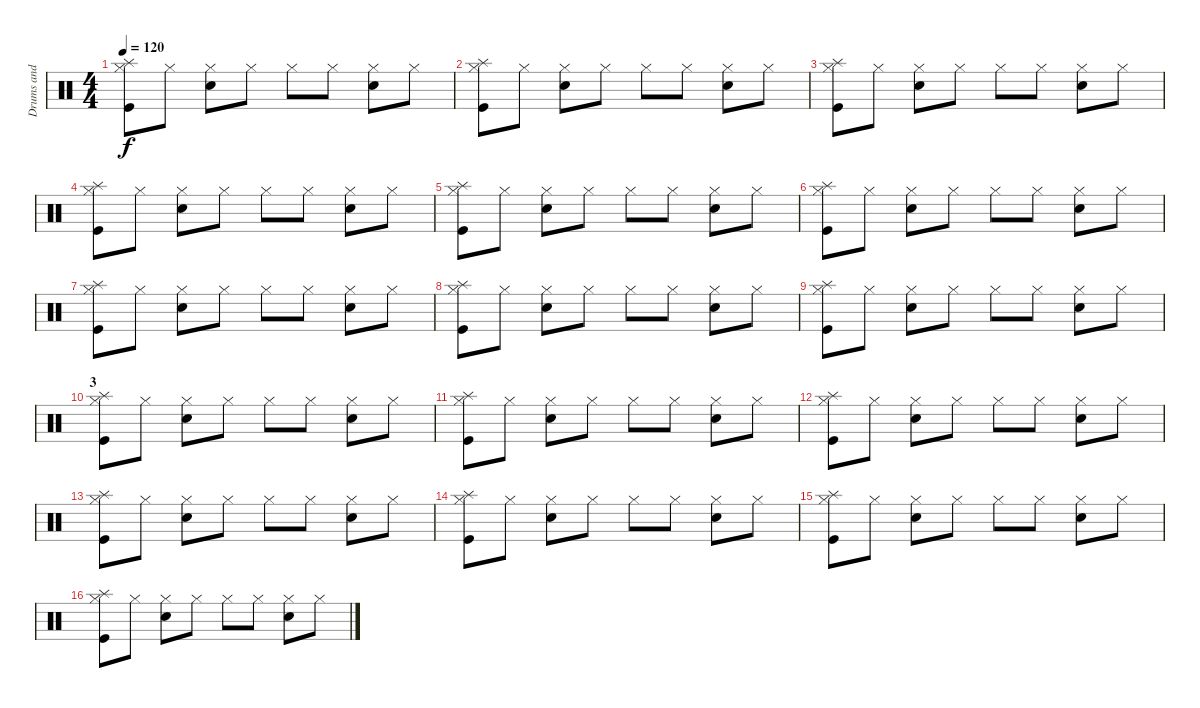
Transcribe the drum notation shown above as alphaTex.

\track ("Drums and Percs" "Drums and ") {instrument percussion}
\staff {score}
\articulation defaults
\ts (4 4)
\tempo 120
\clef neutral
\ks c
("Splash (hit)" "Kick (hit)" "Hi-Hat (closed)").8{dy f} "Hi-Hat (closed)".8 ("Electric Snare (hit)" "Hi-Hat (closed)").8 "Hi-Hat (closed)".8 "Hi-Hat (closed)".8 "Hi-Hat (closed)".8 ("Electric Snare (hit)" "Hi-Hat (closed)").8 "Hi-Hat (closed)".8 |
("Splash (hit)" "Kick (hit)" "Hi-Hat (closed)").8 "Hi-Hat (closed)".8 ("Electric Snare (hit)" "Hi-Hat (closed)").8 "Hi-Hat (closed)".8 "Hi-Hat (closed)".8 "Hi-Hat (closed)".8 ("Electric Snare (hit)" "Hi-Hat (closed)").8 "Hi-Hat (closed)".8 |
("Splash (hit)" "Kick (hit)" "Hi-Hat (closed)").8 "Hi-Hat (closed)".8 ("Electric Snare (hit)" "Hi-Hat (closed)").8 "Hi-Hat (closed)".8 "Hi-Hat (closed)".8 "Hi-Hat (closed)".8 ("Electric Snare (hit)" "Hi-Hat (closed)").8 "Hi-Hat (closed)".8 |
("Splash (hit)" "Kick (hit)" "Hi-Hat (closed)").8 "Hi-Hat (closed)".8 ("Electric Snare (hit)" "Hi-Hat (closed)").8 "Hi-Hat (closed)".8 "Hi-Hat (closed)".8 "Hi-Hat (closed)".8 ("Electric Snare (hit)" "Hi-Hat (closed)").8 "Hi-Hat (closed)".8 |
("Splash (hit)" "Kick (hit)" "Hi-Hat (closed)").8 "Hi-Hat (closed)".8 ("Electric Snare (hit)" "Hi-Hat (closed)").8 "Hi-Hat (closed)".8 "Hi-Hat (closed)".8 "Hi-Hat (closed)".8 ("Electric Snare (hit)" "Hi-Hat (closed)").8 "Hi-Hat (closed)".8 |
("Splash (hit)" "Kick (hit)" "Hi-Hat (closed)").8 "Hi-Hat (closed)".8 ("Electric Snare (hit)" "Hi-Hat (closed)").8 "Hi-Hat (closed)".8 "Hi-Hat (closed)".8 "Hi-Hat (closed)".8 ("Electric Snare (hit)" "Hi-Hat (closed)").8 "Hi-Hat (closed)".8 |
("Splash (hit)" "Kick (hit)" "Hi-Hat (closed)").8 "Hi-Hat (closed)".8 ("Electric Snare (hit)" "Hi-Hat (closed)").8 "Hi-Hat (closed)".8 "Hi-Hat (closed)".8 "Hi-Hat (closed)".8 ("Electric Snare (hit)" "Hi-Hat (closed)").8 "Hi-Hat (closed)".8 |
("Splash (hit)" "Kick (hit)" "Hi-Hat (closed)").8 "Hi-Hat (closed)".8 ("Electric Snare (hit)" "Hi-Hat (closed)").8 "Hi-Hat (closed)".8 "Hi-Hat (closed)".8 "Hi-Hat (closed)".8 ("Electric Snare (hit)" "Hi-Hat (closed)").8 "Hi-Hat (closed)".8 |
("Splash (hit)" "Kick (hit)" "Hi-Hat (closed)").8 "Hi-Hat (closed)".8 ("Electric Snare (hit)" "Hi-Hat (closed)").8 "Hi-Hat (closed)".8 "Hi-Hat (closed)".8 "Hi-Hat (closed)".8 ("Electric Snare (hit)" "Hi-Hat (closed)").8 "Hi-Hat (closed)".8 |
\section ("" "3")
("Splash (hit)" "Kick (hit)" "Hi-Hat (closed)").8 "Hi-Hat (closed)".8 ("Electric Snare (hit)" "Hi-Hat (closed)").8 "Hi-Hat (closed)".8 "Hi-Hat (closed)".8 "Hi-Hat (closed)".8 ("Electric Snare (hit)" "Hi-Hat (closed)").8 "Hi-Hat (closed)".8 |
("Splash (hit)" "Kick (hit)" "Hi-Hat (closed)").8 "Hi-Hat (closed)".8 ("Electric Snare (hit)" "Hi-Hat (closed)").8 "Hi-Hat (closed)".8 "Hi-Hat (closed)".8 "Hi-Hat (closed)".8 ("Electric Snare (hit)" "Hi-Hat (closed)").8 "Hi-Hat (closed)".8 |
("Splash (hit)" "Kick (hit)" "Hi-Hat (closed)").8 "Hi-Hat (closed)".8 ("Electric Snare (hit)" "Hi-Hat (closed)").8 "Hi-Hat (closed)".8 "Hi-Hat (closed)".8 "Hi-Hat (closed)".8 ("Electric Snare (hit)" "Hi-Hat (closed)").8 "Hi-Hat (closed)".8 |
("Splash (hit)" "Kick (hit)" "Hi-Hat (closed)").8 "Hi-Hat (closed)".8 ("Electric Snare (hit)" "Hi-Hat (closed)").8 "Hi-Hat (closed)".8 "Hi-Hat (closed)".8 "Hi-Hat (closed)".8 ("Electric Snare (hit)" "Hi-Hat (closed)").8 "Hi-Hat (closed)".8 |
("Splash (hit)" "Kick (hit)" "Hi-Hat (closed)").8 "Hi-Hat (closed)".8 ("Electric Snare (hit)" "Hi-Hat (closed)").8 "Hi-Hat (closed)".8 "Hi-Hat (closed)".8 "Hi-Hat (closed)".8 ("Electric Snare (hit)" "Hi-Hat (closed)").8 "Hi-Hat (closed)".8 |
("Splash (hit)" "Kick (hit)" "Hi-Hat (closed)").8 "Hi-Hat (closed)".8 ("Electric Snare (hit)" "Hi-Hat (closed)").8 "Hi-Hat (closed)".8 "Hi-Hat (closed)".8 "Hi-Hat (closed)".8 ("Electric Snare (hit)" "Hi-Hat (closed)").8 "Hi-Hat (closed)".8 |
("Splash (hit)" "Kick (hit)" "Hi-Hat (closed)").8 "Hi-Hat (closed)".8 ("Electric Snare (hit)" "Hi-Hat (closed)").8 "Hi-Hat (closed)".8 "Hi-Hat (closed)".8 "Hi-Hat (closed)".8 ("Electric Snare (hit)" "Hi-Hat (closed)").8 "Hi-Hat (closed)".8
